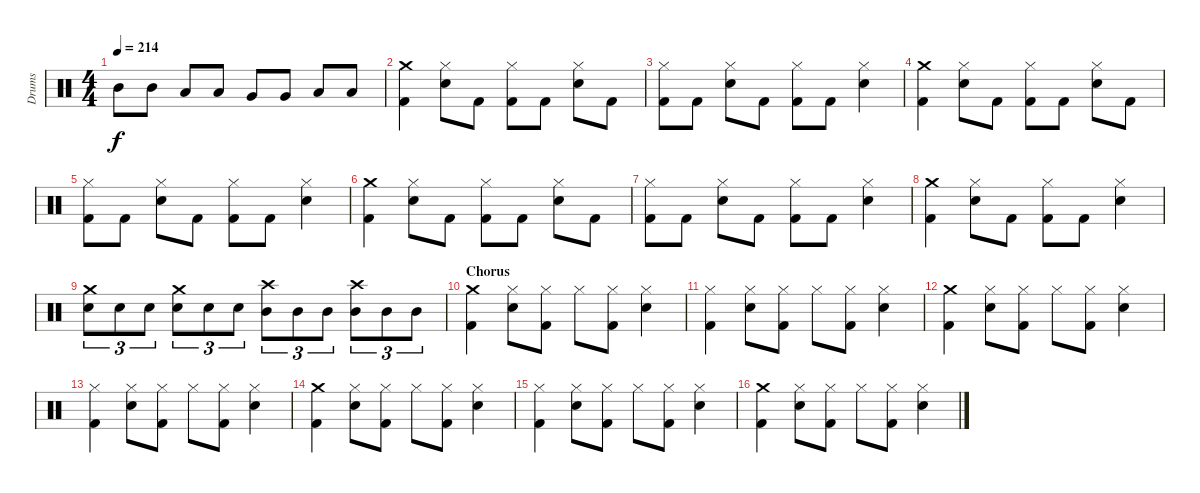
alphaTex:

\track ("Drums" "Drums") {instrument percussion}
\staff {score}
\articulation defaults
\ts (4 4)
\tempo 214
\clef neutral
\ks c "Mid Tom (hit)".8{dy f} "Mid Tom (hit)".8 "Low Tom (hit)".8 "Low Tom (hit)".8 "Very Low Tom (hit)".8 "Very Low Tom (hit)".8 "Low Floor Tom (hit)".8 "Low Floor Tom (hit)".8
|
("Crash medium (hit)" "Kick (hit) 2").4 ("Hi-Hat (closed)" "Electric Snare (hit)").8 "Kick (hit) 2".8 ("Hi-Hat (closed)" "Kick (hit) 2").8 "Kick (hit) 2".8 ("Hi-Hat (closed)" "Electric Snare (hit)").8 "Kick (hit) 2".8 |
("Hi-Hat (closed)" "Kick (hit) 2").8 "Kick (hit) 2".8 ("Hi-Hat (closed)" "Electric Snare (hit)").8 "Kick (hit) 2".8 ("Hi-Hat (closed)" "Kick (hit) 2").8 "Kick (hit) 2".8 ("Hi-Hat (closed)" "Electric Snare (hit)").4 |
("Crash medium (hit)" "Kick (hit) 2").4 ("Hi-Hat (closed)" "Electric Snare (hit)").8 "Kick (hit) 2".8 ("Hi-Hat (closed)" "Kick (hit) 2").8 "Kick (hit) 2".8 ("Hi-Hat (closed)" "Electric Snare (hit)").8 "Kick (hit) 2".8 |
("Hi-Hat (closed)" "Kick (hit) 2").8 "Kick (hit) 2".8 ("Hi-Hat (closed)" "Electric Snare (hit)").8 "Kick (hit) 2".8 ("Hi-Hat (closed)" "Kick (hit) 2").8 "Kick (hit) 2".8 ("Hi-Hat (closed)" "Electric Snare (hit)").4 |
("Crash medium (hit)" "Kick (hit) 2").4 ("Hi-Hat (closed)" "Electric Snare (hit)").8 "Kick (hit) 2".8 ("Hi-Hat (closed)" "Kick (hit) 2").8 "Kick (hit) 2".8 ("Hi-Hat (closed)" "Electric Snare (hit)").8 "Kick (hit) 2".8 |
("Hi-Hat (closed)" "Kick (hit) 2").8 "Kick (hit) 2".8 ("Hi-Hat (closed)" "Electric Snare (hit)").8 "Kick (hit) 2".8 ("Hi-Hat (closed)" "Kick (hit) 2").8 "Kick (hit) 2".8 ("Hi-Hat (closed)" "Electric Snare (hit)").4 |
("Crash medium (hit)" "Kick (hit) 2").4 ("Hi-Hat (closed)" "Electric Snare (hit)").8 "Kick (hit) 2".8 ("Hi-Hat (closed)" "Kick (hit) 2").8 "Kick (hit) 2".8 ("Hi-Hat (closed)" "Electric Snare (hit)").4 |
("Crash medium (hit)" "Electric Snare (hit)").8{tu (3 2)} "Electric Snare (hit)".8{tu (3 2)} "Electric Snare (hit)".8{tu (3 2)} ("Crash medium (hit)" "Electric Snare (hit)").8{tu (3 2)} "Electric Snare (hit)".8{tu (3 2)} "Electric Snare (hit)".8{tu (3 2)} ("Crash high (hit)" "Mid Tom (hit)").8{tu (3 2)} "Mid Tom (hit)".8{tu (3 2)} "Mid Tom (hit)".8{tu (3 2)} ("Crash high (hit)" "Mid Tom (hit)").8{tu (3 2)} "Mid Tom (hit)".8{tu (3 2)} "Mid Tom (hit)".8{tu (3 2)} |
\section ("" "Chorus")
("Crash medium (hit)" "Kick (hit) 2").4 ("Hi-Hat (closed)" "Electric Snare (hit)").8 ("Hi-Hat (closed)" "Kick (hit) 2").8 "Hi-Hat (closed)".8 ("Hi-Hat (closed)" "Kick (hit) 2").8 ("Hi-Hat (closed)" "Electric Snare (hit)").4 |
("Hi-Hat (closed)" "Kick (hit) 2").4 ("Hi-Hat (closed)" "Electric Snare (hit)").8 ("Hi-Hat (closed)" "Kick (hit) 2").8 "Hi-Hat (closed)".8 ("Hi-Hat (closed)" "Kick (hit) 2").8 ("Hi-Hat (closed)" "Electric Snare (hit)").4 |
("Crash medium (hit)" "Kick (hit) 2").4 ("Hi-Hat (closed)" "Electric Snare (hit)").8 ("Hi-Hat (closed)" "Kick (hit) 2").8 "Hi-Hat (closed)".8 ("Hi-Hat (closed)" "Kick (hit) 2").8 ("Hi-Hat (closed)" "Electric Snare (hit)").4 |
("Hi-Hat (closed)" "Kick (hit) 2").4 ("Hi-Hat (closed)" "Electric Snare (hit)").8 ("Hi-Hat (closed)" "Kick (hit) 2").8 "Hi-Hat (closed)".8 ("Hi-Hat (closed)" "Kick (hit) 2").8 ("Hi-Hat (closed)" "Electric Snare (hit)").4 |
("Crash medium (hit)" "Kick (hit) 2").4 ("Hi-Hat (closed)" "Electric Snare (hit)").8 ("Hi-Hat (closed)" "Kick (hit) 2").8 "Hi-Hat (closed)".8 ("Hi-Hat (closed)" "Kick (hit) 2").8 ("Hi-Hat (closed)" "Electric Snare (hit)").4 |
("Hi-Hat (closed)" "Kick (hit) 2").4 ("Hi-Hat (closed)" "Electric Snare (hit)").8 ("Hi-Hat (closed)" "Kick (hit) 2").8 "Hi-Hat (closed)".8 ("Hi-Hat (closed)" "Kick (hit) 2").8 ("Hi-Hat (closed)" "Electric Snare (hit)").4 |
("Crash medium (hit)" "Kick (hit) 2").4 ("Hi-Hat (closed)" "Electric Snare (hit)").8 ("Hi-Hat (closed)" "Kick (hit) 2").8 "Hi-Hat (closed)".8 ("Hi-Hat (closed)" "Kick (hit) 2").8 ("Hi-Hat (closed)" "Electric Snare (hit)").4
